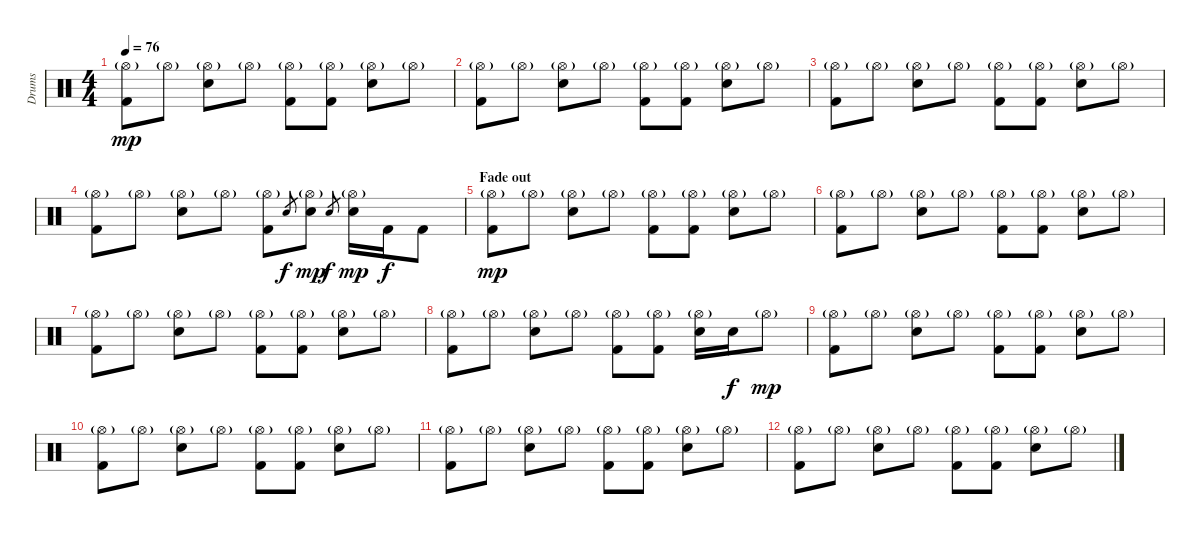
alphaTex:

\track ("Drums" "Drums") {instrument percussion}
\staff {score}
\articulation defaults
\ts (4 4)
\tempo 76
\clef neutral
\ks c
("Kick (hit) 2" "Hi-Hat (open)"{g}).8{dy mp} "Hi-Hat (open)"{g}.8 ("Electric Snare (hit)" "Hi-Hat (open)"{g}).8 "Hi-Hat (open)"{g}.8 ("Kick (hit) 2" "Hi-Hat (open)"{g}).8 ("Kick (hit) 2" "Hi-Hat (open)"{g}).8 ("Electric Snare (hit)" "Hi-Hat (open)"{g}).8 "Hi-Hat (open)"{g}.8 |
("Kick (hit) 2" "Hi-Hat (open)"{g}).8 "Hi-Hat (open)"{g}.8 ("Electric Snare (hit)" "Hi-Hat (open)"{g}).8 "Hi-Hat (open)"{g}.8 ("Kick (hit) 2" "Hi-Hat (open)"{g}).8 ("Kick (hit) 2" "Hi-Hat (open)"{g}).8 ("Electric Snare (hit)" "Hi-Hat (open)"{g}).8 "Hi-Hat (open)"{g}.8 |
("Kick (hit) 2" "Hi-Hat (open)"{g}).8 "Hi-Hat (open)"{g}.8 ("Electric Snare (hit)" "Hi-Hat (open)"{g}).8 "Hi-Hat (open)"{g}.8 ("Kick (hit) 2" "Hi-Hat (open)"{g}).8 ("Kick (hit) 2" "Hi-Hat (open)"{g}).8 ("Electric Snare (hit)" "Hi-Hat (open)"{g}).8 "Hi-Hat (open)"{g}.8 |
("Kick (hit) 2" "Hi-Hat (open)"{g}).8 "Hi-Hat (open)"{g}.8 ("Electric Snare (hit)" "Hi-Hat (open)"{g}).8 "Hi-Hat (open)"{g}.8 ("Kick (hit) 2" "Hi-Hat (open)"{g}).8 "Electric Snare (hit)".8{gr dy f} ("Electric Snare (hit)" "Hi-Hat (open)"{g}).8{dy mp} "Electric Snare (hit)".8{gr dy f} ("Electric Snare (hit)" "Hi-Hat (open)"{g}).16{dy mp} "Kick (hit) 2".16{dy f} "Kick (hit) 2".8 |
\section ("" "Fade out")
("Kick (hit) 2" "Hi-Hat (open)"{g}).8{dy mp} "Hi-Hat (open)"{g}.8 ("Electric Snare (hit)" "Hi-Hat (open)"{g}).8 "Hi-Hat (open)"{g}.8 ("Kick (hit) 2" "Hi-Hat (open)"{g}).8 ("Kick (hit) 2" "Hi-Hat (open)"{g}).8 ("Electric Snare (hit)" "Hi-Hat (open)"{g}).8 "Hi-Hat (open)"{g}.8 |
("Kick (hit) 2" "Hi-Hat (open)"{g}).8 "Hi-Hat (open)"{g}.8 ("Electric Snare (hit)" "Hi-Hat (open)"{g}).8 "Hi-Hat (open)"{g}.8 ("Kick (hit) 2" "Hi-Hat (open)"{g}).8 ("Kick (hit) 2" "Hi-Hat (open)"{g}).8 ("Electric Snare (hit)" "Hi-Hat (open)"{g}).8 "Hi-Hat (open)"{g}.8 |
("Kick (hit) 2" "Hi-Hat (open)"{g}).8 "Hi-Hat (open)"{g}.8 ("Electric Snare (hit)" "Hi-Hat (open)"{g}).8 "Hi-Hat (open)"{g}.8 ("Kick (hit) 2" "Hi-Hat (open)"{g}).8 ("Kick (hit) 2" "Hi-Hat (open)"{g}).8 ("Electric Snare (hit)" "Hi-Hat (open)"{g}).8 "Hi-Hat (open)"{g}.8 |
("Kick (hit) 2" "Hi-Hat (open)"{g}).8 "Hi-Hat (open)"{g}.8 ("Electric Snare (hit)" "Hi-Hat (open)"{g}).8 "Hi-Hat (open)"{g}.8 ("Kick (hit) 2" "Hi-Hat (open)"{g}).8 ("Kick (hit) 2" "Hi-Hat (open)"{g}).8 ("Electric Snare (hit)" "Hi-Hat (open)"{g}).16 "Electric Snare (hit)".16{dy f} "Hi-Hat (open)"{g}.8{dy mp} |
("Kick (hit) 2" "Hi-Hat (open)"{g}).8 "Hi-Hat (open)"{g}.8 ("Electric Snare (hit)" "Hi-Hat (open)"{g}).8 "Hi-Hat (open)"{g}.8 ("Kick (hit) 2" "Hi-Hat (open)"{g}).8 ("Kick (hit) 2" "Hi-Hat (open)"{g}).8 ("Electric Snare (hit)" "Hi-Hat (open)"{g}).8 "Hi-Hat (open)"{g}.8 |
("Kick (hit) 2" "Hi-Hat (open)"{g}).8 "Hi-Hat (open)"{g}.8 ("Electric Snare (hit)" "Hi-Hat (open)"{g}).8 "Hi-Hat (open)"{g}.8 ("Kick (hit) 2" "Hi-Hat (open)"{g}).8 ("Kick (hit) 2" "Hi-Hat (open)"{g}).8 ("Electric Snare (hit)" "Hi-Hat (open)"{g}).8 "Hi-Hat (open)"{g}.8 |
("Kick (hit) 2" "Hi-Hat (open)"{g}).8 "Hi-Hat (open)"{g}.8 ("Electric Snare (hit)" "Hi-Hat (open)"{g}).8 "Hi-Hat (open)"{g}.8 ("Kick (hit) 2" "Hi-Hat (open)"{g}).8 ("Kick (hit) 2" "Hi-Hat (open)"{g}).8 ("Electric Snare (hit)" "Hi-Hat (open)"{g}).8 "Hi-Hat (open)"{g}.8 |
("Kick (hit) 2" "Hi-Hat (open)"{g}).8 "Hi-Hat (open)"{g}.8 ("Electric Snare (hit)" "Hi-Hat (open)"{g}).8 "Hi-Hat (open)"{g}.8 ("Kick (hit) 2" "Hi-Hat (open)"{g}).8 ("Kick (hit) 2" "Hi-Hat (open)"{g}).8 ("Electric Snare (hit)" "Hi-Hat (open)"{g}).8 "Hi-Hat (open)"{g}.8
